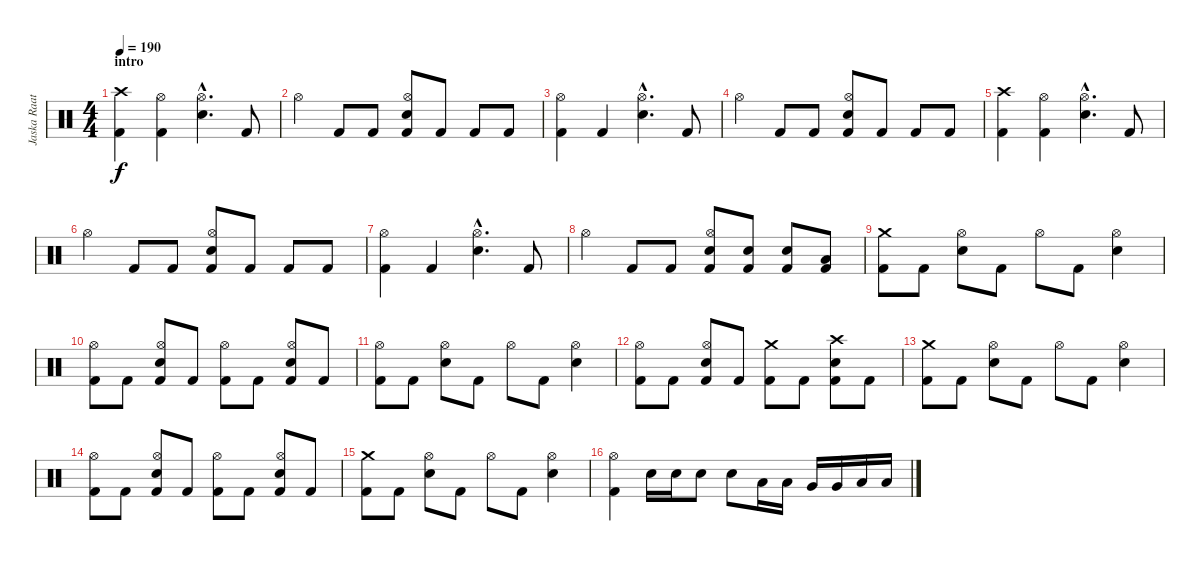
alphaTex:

\track ("Jaska Raatikainen" "Jaska Raat") {instrument percussion}
\staff {score}
\articulation defaults
\ts (4 4)
\section ("" "intro")
\tempo 190
\clef neutral
\ks c
("Crash high (hit)" "Kick (hit) 2").4{dy f} ("Hi-Hat (open)" "Kick (hit) 2").4 ("Hi-Hat (open)"{hac} "Snare (hit) 2"{hac}).4{d} "Kick (hit) 2".8 |
"Hi-Hat (open)".4 "Kick (hit) 2".8 "Kick (hit) 2".8 ("Hi-Hat (open)" "Snare (hit) 2" "Kick (hit) 2").8 "Kick (hit) 2".8 "Kick (hit) 2".8 "Kick (hit) 2".8 |
("Hi-Hat (open)" "Kick (hit) 2").4 "Kick (hit) 2".4 ("Hi-Hat (open)"{hac} "Snare (hit) 2"{hac}).4{d} "Kick (hit) 2".8 |
"Hi-Hat (open)".4 "Kick (hit) 2".8 "Kick (hit) 2".8 ("Hi-Hat (open)" "Snare (hit) 2" "Kick (hit) 2").8 "Kick (hit) 2".8 "Kick (hit) 2".8 "Kick (hit) 2".8 |
("Crash high (hit)" "Kick (hit) 2").4 ("Hi-Hat (open)" "Kick (hit) 2").4 ("Hi-Hat (open)"{hac} "Snare (hit) 2"{hac}).4{d} "Kick (hit) 2".8 |
"Hi-Hat (open)".4 "Kick (hit) 2".8 "Kick (hit) 2".8 ("Hi-Hat (open)" "Snare (hit) 2" "Kick (hit) 2").8 "Kick (hit) 2".8 "Kick (hit) 2".8 "Kick (hit) 2".8 |
("Hi-Hat (open)" "Kick (hit) 2").4 "Kick (hit) 2".4 ("Hi-Hat (open)"{hac} "Snare (hit) 2"{hac}).4{d} "Kick (hit) 2".8 |
"Hi-Hat (open)".4 "Kick (hit) 2".8 "Kick (hit) 2".8 ("Hi-Hat (open)" "Snare (hit) 2" "Kick (hit) 2").8 ("Snare (hit) 2" "Kick (hit) 2").8 ("Snare (hit) 2" "Kick (hit) 2").8 ("Low Tom (hit)" "Kick (hit) 2").8 |
("Crash medium (hit)" "Kick (hit) 2").8 "Kick (hit) 2".8 ("Hi-Hat (open)" "Snare (hit) 2").8 "Kick (hit) 2".8 "Hi-Hat (open)".8 "Kick (hit) 2".8 ("Hi-Hat (open)" "Snare (hit) 2").4 |
("Hi-Hat (open)" "Kick (hit) 2").8 "Kick (hit) 2".8 ("Hi-Hat (open)" "Snare (hit) 2" "Kick (hit) 2").8 "Kick (hit) 2".8 ("Hi-Hat (open)" "Kick (hit) 2").8 "Kick (hit) 2".8 ("Hi-Hat (open)" "Snare (hit) 2" "Kick (hit) 2").8 "Kick (hit) 2".8 |
("Hi-Hat (open)" "Kick (hit) 2").8 "Kick (hit) 2".8 ("Hi-Hat (open)" "Snare (hit) 2").8 "Kick (hit) 2".8 "Hi-Hat (open)".8 "Kick (hit) 2".8 ("Hi-Hat (open)" "Snare (hit) 2").4 |
("Hi-Hat (open)" "Kick (hit) 2").8 "Kick (hit) 2".8 ("Hi-Hat (open)" "Snare (hit) 2" "Kick (hit) 2").8 "Kick (hit) 2".8 ("Crash medium (hit)" "Kick (hit) 2").8 "Kick (hit) 2".8 ("Crash high (hit)" "Snare (hit) 2" "Kick (hit) 2").8 "Kick (hit) 2".8 |
("Crash medium (hit)" "Kick (hit) 2").8 "Kick (hit) 2".8 ("Hi-Hat (open)" "Snare (hit) 2").8 "Kick (hit) 2".8 "Hi-Hat (open)".8 "Kick (hit) 2".8 ("Hi-Hat (open)" "Snare (hit) 2").4 |
("Hi-Hat (open)" "Kick (hit) 2").8 "Kick (hit) 2".8 ("Hi-Hat (open)" "Snare (hit) 2" "Kick (hit) 2").8 "Kick (hit) 2".8 ("Hi-Hat (open)" "Kick (hit) 2").8 "Kick (hit) 2".8 ("Hi-Hat (open)" "Snare (hit) 2" "Kick (hit) 2").8 "Kick (hit) 2".8 |
("Crash medium (hit)" "Kick (hit) 2").8 "Kick (hit) 2".8 ("Hi-Hat (open)" "Snare (hit) 2").8 "Kick (hit) 2".8 "Hi-Hat (open)".8 "Kick (hit) 2".8 ("Hi-Hat (open)" "Snare (hit) 2").4 |
("Hi-Hat (open)" "Kick (hit) 2").4 "Snare (hit) 2".16 "Snare (hit) 2".16 "Snare (hit) 2".8 "Snare (hit) 2".8 "Low Tom (hit)".16 "Low Tom (hit)".16 "Very Low Tom (hit)".16 "Very Low Tom (hit)".16 "Low Floor Tom (hit)".16 "Low Floor Tom (hit)".16
